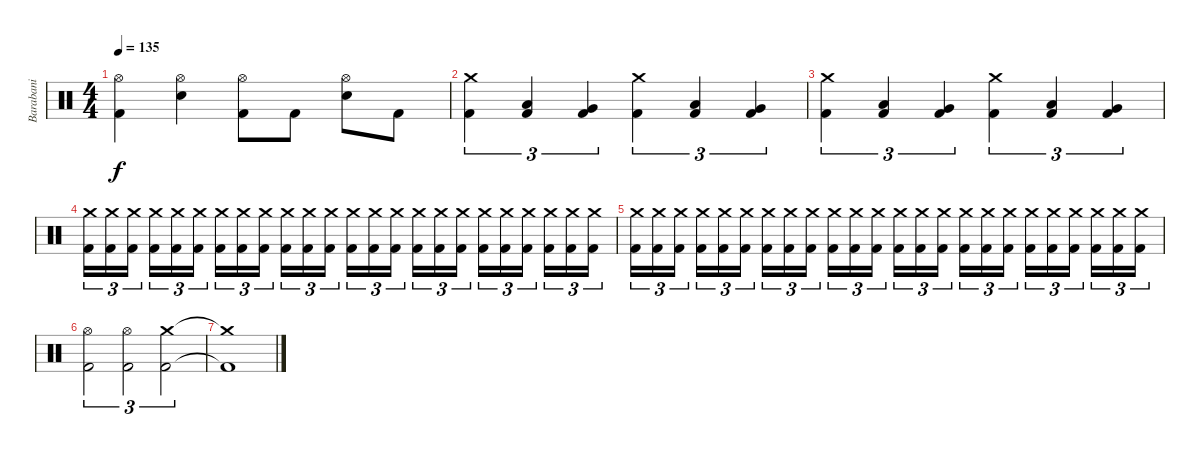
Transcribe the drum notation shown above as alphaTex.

\track ("Barabani" "Barabani") {instrument percussion}
\staff {score}
\articulation defaults
\ts (4 4)
\tempo 135
\clef neutral
\ks c
("Hi-Hat (open)" "Kick (hit) 2").4{dy f} ("Hi-Hat (open)" "Snare (hit) 2").4 ("Hi-Hat (open)" "Kick (hit) 2").8 "Kick (hit) 2".8 ("Hi-Hat (open)" "Snare (hit) 2").8 "Kick (hit) 2".8 |
("Crash medium (hit)" "Kick (hit) 2").4{tu (3 2)} ("Low Tom (hit)" "Kick (hit) 2").4{tu (3 2)} ("Very Low Tom (hit)" "Kick (hit) 2").4{tu (3 2)} ("Crash medium (hit)" "Kick (hit) 2").4{tu (3 2)} ("Low Tom (hit)" "Kick (hit) 2").4{tu (3 2)} ("Very Low Tom (hit)" "Kick (hit) 2").4{tu (3 2)} |
("Crash medium (hit)" "Kick (hit) 2").4{tu (3 2)} ("Low Tom (hit)" "Kick (hit) 2").4{tu (3 2)} ("Very Low Tom (hit)" "Kick (hit) 2").4{tu (3 2)} ("Crash medium (hit)" "Kick (hit) 2").4{tu (3 2)} ("Low Tom (hit)" "Kick (hit) 2").4{tu (3 2)} ("Very Low Tom (hit)" "Kick (hit) 2").4{tu (3 2)} |
("Crash medium (hit)" "Kick (hit) 2").16{tu (3 2)} ("Crash medium (hit)" "Kick (hit) 2").16{tu (3 2)} ("Crash medium (hit)" "Kick (hit) 2").16{tu (3 2) beam splitsecondary} ("Crash medium (hit)" "Kick (hit) 2").16{tu (3 2)} ("Crash medium (hit)" "Kick (hit) 2").16{tu (3 2)} ("Crash medium (hit)" "Kick (hit) 2").16{tu (3 2)} ("Crash medium (hit)" "Kick (hit) 2").16{tu (3 2)} ("Crash medium (hit)" "Kick (hit) 2").16{tu (3 2)} ("Crash medium (hit)" "Kick (hit) 2").16{tu (3 2) beam splitsecondary} ("Crash medium (hit)" "Kick (hit) 2").16{tu (3 2)} ("Crash medium (hit)" "Kick (hit) 2").16{tu (3 2)} ("Crash medium (hit)" "Kick (hit) 2").16{tu (3 2)} ("Crash medium (hit)" "Kick (hit) 2").16{tu (3 2)} ("Crash medium (hit)" "Kick (hit) 2").16{tu (3 2)} ("Crash medium (hit)" "Kick (hit) 2").16{tu (3 2) beam splitsecondary} ("Crash medium (hit)" "Kick (hit) 2").16{tu (3 2)} ("Crash medium (hit)" "Kick (hit) 2").16{tu (3 2)} ("Crash medium (hit)" "Kick (hit) 2").16{tu (3 2)} ("Crash medium (hit)" "Kick (hit) 2").16{tu (3 2)} ("Crash medium (hit)" "Kick (hit) 2").16{tu (3 2)} ("Crash medium (hit)" "Kick (hit) 2").16{tu (3 2) beam splitsecondary} ("Crash medium (hit)" "Kick (hit) 2").16{tu (3 2)} ("Crash medium (hit)" "Kick (hit) 2").16{tu (3 2)} ("Crash medium (hit)" "Kick (hit) 2").16{tu (3 2)} |
("Crash medium (hit)" "Kick (hit) 2").16{tu (3 2)} ("Crash medium (hit)" "Kick (hit) 2").16{tu (3 2)} ("Crash medium (hit)" "Kick (hit) 2").16{tu (3 2) beam splitsecondary} ("Crash medium (hit)" "Kick (hit) 2").16{tu (3 2)} ("Crash medium (hit)" "Kick (hit) 2").16{tu (3 2)} ("Crash medium (hit)" "Kick (hit) 2").16{tu (3 2)} ("Crash medium (hit)" "Kick (hit) 2").16{tu (3 2)} ("Crash medium (hit)" "Kick (hit) 2").16{tu (3 2)} ("Crash medium (hit)" "Kick (hit) 2").16{tu (3 2) beam splitsecondary} ("Crash medium (hit)" "Kick (hit) 2").16{tu (3 2)} ("Crash medium (hit)" "Kick (hit) 2").16{tu (3 2)} ("Crash medium (hit)" "Kick (hit) 2").16{tu (3 2)} ("Crash medium (hit)" "Kick (hit) 2").16{tu (3 2)} ("Crash medium (hit)" "Kick (hit) 2").16{tu (3 2)} ("Crash medium (hit)" "Kick (hit) 2").16{tu (3 2) beam splitsecondary} ("Crash medium (hit)" "Kick (hit) 2").16{tu (3 2)} ("Crash medium (hit)" "Kick (hit) 2").16{tu (3 2)} ("Crash medium (hit)" "Kick (hit) 2").16{tu (3 2)} ("Crash medium (hit)" "Kick (hit) 2").16{tu (3 2)} ("Crash medium (hit)" "Kick (hit) 2").16{tu (3 2)} ("Crash medium (hit)" "Kick (hit) 2").16{tu (3 2) beam splitsecondary} ("Crash medium (hit)" "Kick (hit) 2").16{tu (3 2)} ("Crash medium (hit)" "Kick (hit) 2").16{tu (3 2)} ("Crash medium (hit)" "Kick (hit) 2").16{tu (3 2)} |
("Hi-Hat (open)" "Kick (hit) 2").2{tu (3 2)} ("Hi-Hat (open)" "Kick (hit) 2").2{tu (3 2)} ("Crash medium (hit)" "Kick (hit) 2").2{tu (3 2)} |
("Crash medium (hit)"{t} "Kick (hit) 2"{t}).1
